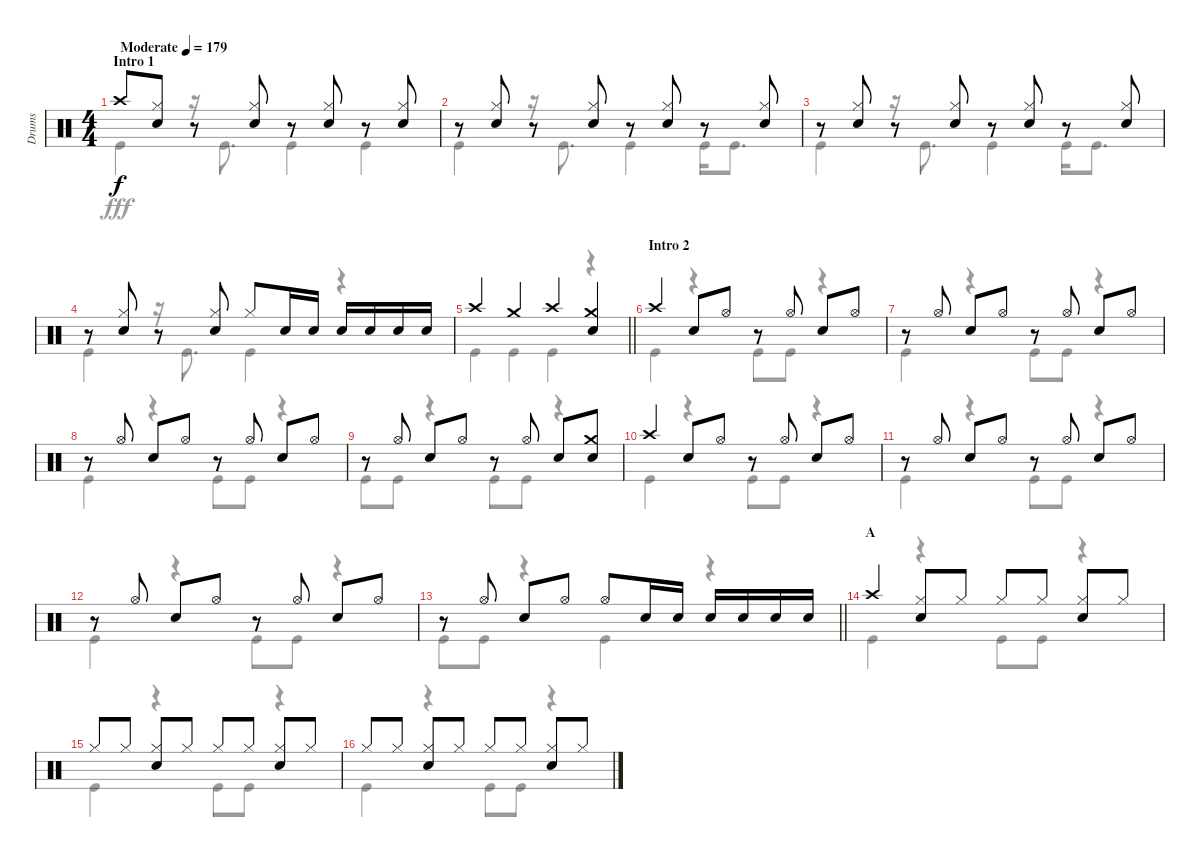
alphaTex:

\track ("Drums" "Drums") {instrument percussion}
\staff {score}
\articulation defaults
\voice
\ts (4 4)
\section ("" "Intro 1")
\tempo (179 "Moderate")
\clef neutral
\ks c "Crash high (hit)".8{dy f}
("Hi-Hat (closed)" "Snare (hit) 2").8 r.8 ("Hi-Hat (closed)" "Snare (hit) 2").8 r.8 ("Hi-Hat (closed)" "Snare (hit) 2").8 r.8 ("Hi-Hat (closed)" "Snare (hit) 2").8 |
r.8 ("Hi-Hat (closed)" "Snare (hit) 2").8 r.8 ("Hi-Hat (closed)" "Snare (hit) 2").8 r.8 ("Hi-Hat (closed)" "Snare (hit) 2").8 r.8 ("Hi-Hat (closed)" "Snare (hit) 2").8 |
r.8 ("Hi-Hat (closed)" "Snare (hit) 2").8 r.8 ("Hi-Hat (closed)" "Snare (hit) 2").8 r.8 ("Hi-Hat (closed)" "Snare (hit) 2").8 r.8 ("Hi-Hat (closed)" "Snare (hit) 2").8 |
r.8 ("Hi-Hat (closed)" "Snare (hit) 2").8 r.8 ("Hi-Hat (closed)" "Snare (hit) 2").8 "Hi-Hat (closed)".8 "Snare (hit) 2".16 "Snare (hit) 2".16 "Snare (hit) 2".16 "Snare (hit) 2".16 "Snare (hit) 2".16 "Snare (hit) 2".16 |
\barLineRight lightlight "Crash high (hit)".4 "Crash medium (hit)".4 "Crash high (hit)".4
("Crash medium (hit)" "Snare (hit) 2").4 |
\section ("" "Intro 2")
"Crash high (hit)".4 "Snare (hit) 2".8 "Hi-Hat (open)".8 r.8 "Hi-Hat (open)".8 "Snare (hit) 2".8 "Hi-Hat (open)".8 |
r.8 "Hi-Hat (open)".8 "Snare (hit) 2".8 "Hi-Hat (open)".8 r.8 "Hi-Hat (open)".8 "Snare (hit) 2".8 "Hi-Hat (open)".8 |
r.8 "Hi-Hat (open)".8 "Snare (hit) 2".8 "Hi-Hat (open)".8 r.8 "Hi-Hat (open)".8 "Snare (hit) 2".8 "Hi-Hat (open)".8 |
r.8 "Hi-Hat (open)".8 "Snare (hit) 2".8 "Hi-Hat (open)".8 r.8 "Hi-Hat (open)".8 "Snare (hit) 2".8 ("Crash medium (hit)" "Snare (hit) 2").8 |
"Crash high (hit)".4 "Snare (hit) 2".8 "Hi-Hat (open)".8 r.8 "Hi-Hat (open)".8 "Snare (hit) 2".8 "Hi-Hat (open)".8 |
r.8 "Hi-Hat (open)".8 "Snare (hit) 2".8 "Hi-Hat (open)".8 r.8 "Hi-Hat (open)".8 "Snare (hit) 2".8 "Hi-Hat (open)".8 |
r.8 "Hi-Hat (open)".8 "Snare (hit) 2".8 "Hi-Hat (open)".8 r.8 "Hi-Hat (open)".8 "Snare (hit) 2".8 "Hi-Hat (open)".8 |
\barLineRight lightlight
r.8 "Hi-Hat (open)".8 "Snare (hit) 2".8 "Hi-Hat (open)".8 "Hi-Hat (open)".8 "Snare (hit) 2".16 "Snare (hit) 2".16 "Snare (hit) 2".16 "Snare (hit) 2".16 "Snare (hit) 2".16 "Snare (hit) 2".16 |
\section ("" "A")
"Crash high (hit)".4 ("Snare (hit) 2" "Hi-Hat (closed)").8 "Hi-Hat (closed)".8 "Hi-Hat (closed)".8 "Hi-Hat (closed)".8 ("Hi-Hat (closed)" "Snare (hit) 2").8 "Hi-Hat (closed)".8 |
"Hi-Hat (closed)".8 "Hi-Hat (closed)".8 ("Snare (hit) 2" "Hi-Hat (closed)").8 "Hi-Hat (closed)".8 "Hi-Hat (closed)".8 "Hi-Hat (closed)".8 ("Hi-Hat (closed)" "Snare (hit) 2").8 "Hi-Hat (closed)".8 |
"Hi-Hat (closed)".8 "Hi-Hat (closed)".8 ("Snare (hit) 2" "Hi-Hat (closed)").8 "Hi-Hat (closed)".8 "Hi-Hat (closed)".8 "Hi-Hat (closed)".8 ("Hi-Hat (closed)" "Snare (hit) 2").8 "Hi-Hat (closed)".8
\voice
\clef neutral
\ottava regular
\simile none
\ks c "Kick (hit)".4{dy fff}
r.16 "Kick (hit)".8{d} "Kick (hit)".4 "Kick (hit)".4 |
"Kick (hit)".4 r.16 "Kick (hit)".8{d} "Kick (hit)".4 "Kick (hit)".16 "Kick (hit)".8{d} |
"Kick (hit)".4 r.16 "Kick (hit)".8{d} "Kick (hit)".4 "Kick (hit)".16 "Kick (hit)".8{d} |
"Kick (hit)".4 r.16 "Kick (hit)".8{d} "Kick (hit)".4 r.4 |
\barLineRight lightlight "Kick (hit)".4 "Kick (hit)".4 "Kick (hit)".4
r.4 |
"Kick (hit)".4 r.4 "Kick (hit)".8 "Kick (hit)".8 r.4 |
"Kick (hit)".4 r.4 "Kick (hit)".8 "Kick (hit)".8 r.4 |
"Kick (hit)".4 r.4 "Kick (hit)".8 "Kick (hit)".8 r.4 |
"Kick (hit)".8 "Kick (hit)".8 r.4 "Kick (hit)".8 "Kick (hit)".8 r.4 |
"Kick (hit)".4 r.4 "Kick (hit)".8 "Kick (hit)".8 r.4 |
"Kick (hit)".4 r.4 "Kick (hit)".8 "Kick (hit)".8 r.4 |
"Kick (hit)".4 r.4 "Kick (hit)".8 "Kick (hit)".8 r.4 |
\barLineRight lightlight "Kick (hit)".8 "Kick (hit)".8
r.4 "Kick (hit)".4 r.4 |
"Kick (hit)".4 r.4 "Kick (hit)".8 "Kick (hit)".8 r.4 |
"Kick (hit)".4 r.4 "Kick (hit)".8 "Kick (hit)".8 r.4 |
"Kick (hit)".4 r.4 "Kick (hit)".8 "Kick (hit)".8 r.4
